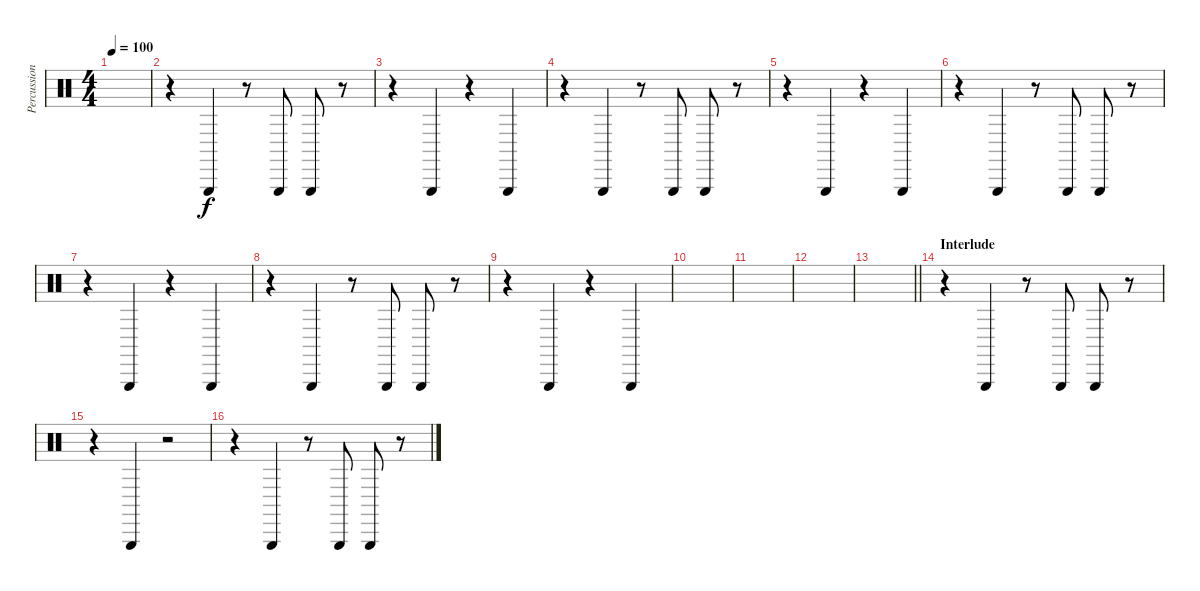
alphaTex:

\track ("Percussion - Joe Plummer" "Percussion") {instrument percussion}
\staff {score}
\articulation defaults
\ts (4 4)
\tempo 100
\clef neutral
\ks c
|
r.4 "Triangle (hit)".4 r.8 "Triangle (hit)".8 "Triangle (hit)".8 r.8 |
r.4 "Triangle (hit)".4 r.4 "Triangle (hit)".4 |
r.4 "Triangle (hit)".4 r.8 "Triangle (hit)".8 "Triangle (hit)".8 r.8 |
r.4 "Triangle (hit)".4 r.4 "Triangle (hit)".4 |
r.4 "Triangle (hit)".4 r.8 "Triangle (hit)".8 "Triangle (hit)".8 r.8 |
r.4 "Triangle (hit)".4 r.4 "Triangle (hit)".4 |
r.4 "Triangle (hit)".4 r.8 "Triangle (hit)".8 "Triangle (hit)".8 r.8 |
r.4 "Triangle (hit)".4 r.4 "Triangle (hit)".4 |
|
|
|
\barLineRight lightlight
|
\section ("" "Interlude")
r.4 "Triangle (hit)".4 r.8 "Triangle (hit)".8 "Triangle (hit)".8 r.8 |
r.4 "Triangle (hit)".4 r.2 |
r.4 "Triangle (hit)".4 r.8 "Triangle (hit)".8 "Triangle (hit)".8 r.8
